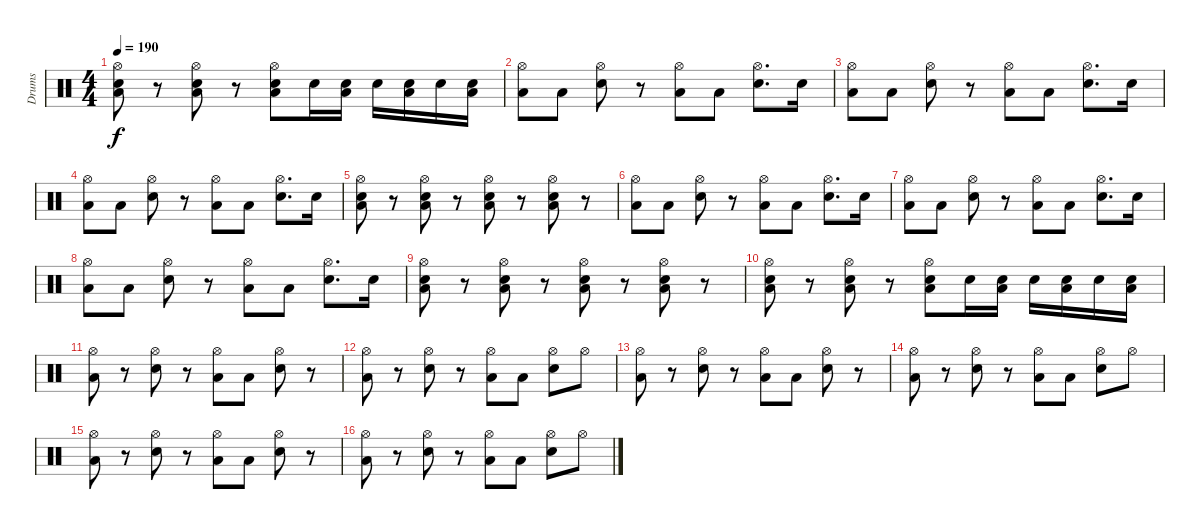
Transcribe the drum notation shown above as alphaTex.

\track ("Drums" "Drums") {instrument percussion}
\staff {score}
\articulation defaults
\ts (4 4)
\tempo 190
\clef neutral
\ks c
("Electric Snare (hit)" "Low Tom (hit)" "Hi-Hat (open)").8{dy f} r.8 ("Electric Snare (hit)" "Low Tom (hit)" "Hi-Hat (open)").8 r.8 ("Electric Snare (hit)" "Low Tom (hit)" "Hi-Hat (open)").8 "Electric Snare (hit)".16 ("Electric Snare (hit)" "Low Tom (hit)").16 "Electric Snare (hit)".16 ("Electric Snare (hit)" "Low Tom (hit)").16 "Electric Snare (hit)".16 ("Electric Snare (hit)" "Low Tom (hit)").16 |
("Low Tom (hit)" "Hi-Hat (open)").8 "Low Tom (hit)".8 ("Electric Snare (hit)" "Hi-Hat (open)").8 r.8 ("Low Tom (hit)" "Hi-Hat (open)").8 "Low Tom (hit)".8 ("Electric Snare (hit)" "Hi-Hat (open)").8{d} "Electric Snare (hit)".16 |
("Low Tom (hit)" "Hi-Hat (open)").8 "Low Tom (hit)".8 ("Electric Snare (hit)" "Hi-Hat (open)").8 r.8 ("Low Tom (hit)" "Hi-Hat (open)").8 "Low Tom (hit)".8 ("Electric Snare (hit)" "Hi-Hat (open)").8{d} "Electric Snare (hit)".16 |
("Low Tom (hit)" "Hi-Hat (open)").8 "Low Tom (hit)".8 ("Electric Snare (hit)" "Hi-Hat (open)").8 r.8 ("Low Tom (hit)" "Hi-Hat (open)").8 "Low Tom (hit)".8 ("Electric Snare (hit)" "Hi-Hat (open)").8{d} "Electric Snare (hit)".16 |
("Electric Snare (hit)" "Low Tom (hit)" "Hi-Hat (open)").8 r.8 ("Electric Snare (hit)" "Low Tom (hit)" "Hi-Hat (open)").8 r.8 ("Electric Snare (hit)" "Low Tom (hit)" "Hi-Hat (open)").8 r.8 ("Electric Snare (hit)" "Low Tom (hit)" "Hi-Hat (open)").8 r.8 |
("Low Tom (hit)" "Hi-Hat (open)").8 "Low Tom (hit)".8 ("Electric Snare (hit)" "Hi-Hat (open)").8 r.8 ("Low Tom (hit)" "Hi-Hat (open)").8 "Low Tom (hit)".8 ("Electric Snare (hit)" "Hi-Hat (open)").8{d} "Electric Snare (hit)".16 |
("Low Tom (hit)" "Hi-Hat (open)").8 "Low Tom (hit)".8 ("Electric Snare (hit)" "Hi-Hat (open)").8 r.8 ("Low Tom (hit)" "Hi-Hat (open)").8 "Low Tom (hit)".8 ("Electric Snare (hit)" "Hi-Hat (open)").8{d} "Electric Snare (hit)".16 |
("Low Tom (hit)" "Hi-Hat (open)").8 "Low Tom (hit)".8 ("Electric Snare (hit)" "Hi-Hat (open)").8 r.8 ("Low Tom (hit)" "Hi-Hat (open)").8 "Low Tom (hit)".8 ("Electric Snare (hit)" "Hi-Hat (open)").8{d} "Electric Snare (hit)".16 |
("Electric Snare (hit)" "Low Tom (hit)" "Hi-Hat (open)").8 r.8 ("Electric Snare (hit)" "Low Tom (hit)" "Hi-Hat (open)").8 r.8 ("Electric Snare (hit)" "Low Tom (hit)" "Hi-Hat (open)").8 r.8 ("Electric Snare (hit)" "Low Tom (hit)" "Hi-Hat (open)").8 r.8 |
("Electric Snare (hit)" "Low Tom (hit)" "Hi-Hat (open)").8 r.8 ("Electric Snare (hit)" "Low Tom (hit)" "Hi-Hat (open)").8 r.8 ("Electric Snare (hit)" "Low Tom (hit)" "Hi-Hat (open)").8 "Electric Snare (hit)".16 ("Electric Snare (hit)" "Low Tom (hit)").16 "Electric Snare (hit)".16 ("Electric Snare (hit)" "Low Tom (hit)").16 "Electric Snare (hit)".16 ("Electric Snare (hit)" "Low Tom (hit)").16 |
("Low Tom (hit)" "Hi-Hat (open)").8 r.8 ("Electric Snare (hit)" "Hi-Hat (open)").8 r.8 ("Low Tom (hit)" "Hi-Hat (open)").8 "Low Tom (hit)".8 ("Electric Snare (hit)" "Hi-Hat (open)").8 r.8 |
("Low Tom (hit)" "Hi-Hat (open)").8 r.8 ("Electric Snare (hit)" "Hi-Hat (open)").8 r.8 ("Low Tom (hit)" "Hi-Hat (open)").8 "Low Tom (hit)".8 ("Electric Snare (hit)" "Hi-Hat (open)").8 "Hi-Hat (open)".8 |
("Low Tom (hit)" "Hi-Hat (open)").8 r.8 ("Electric Snare (hit)" "Hi-Hat (open)").8 r.8 ("Low Tom (hit)" "Hi-Hat (open)").8 "Low Tom (hit)".8 ("Electric Snare (hit)" "Hi-Hat (open)").8 r.8 |
("Low Tom (hit)" "Hi-Hat (open)").8 r.8 ("Electric Snare (hit)" "Hi-Hat (open)").8 r.8 ("Low Tom (hit)" "Hi-Hat (open)").8 "Low Tom (hit)".8 ("Electric Snare (hit)" "Hi-Hat (open)").8 "Hi-Hat (open)".8 |
("Low Tom (hit)" "Hi-Hat (open)").8 r.8 ("Electric Snare (hit)" "Hi-Hat (open)").8 r.8 ("Low Tom (hit)" "Hi-Hat (open)").8 "Low Tom (hit)".8 ("Electric Snare (hit)" "Hi-Hat (open)").8 r.8 |
("Low Tom (hit)" "Hi-Hat (open)").8 r.8 ("Electric Snare (hit)" "Hi-Hat (open)").8 r.8 ("Low Tom (hit)" "Hi-Hat (open)").8 "Low Tom (hit)".8 ("Electric Snare (hit)" "Hi-Hat (open)").8 "Hi-Hat (open)".8
